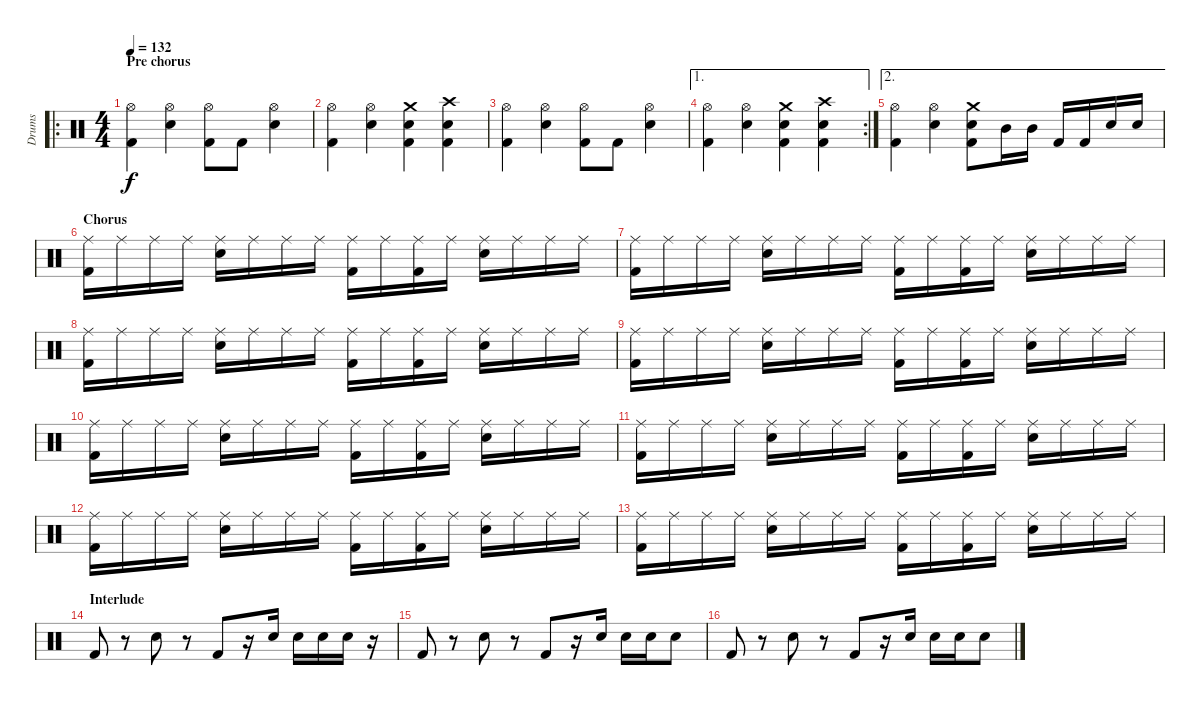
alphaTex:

\track ("Drums" "Drums") {instrument percussion}
\staff {score}
\articulation defaults
\ro
\ts (4 4)
\section ("" "Pre chorus")
\tempo 132
\clef neutral
\ks c
("Hi-Hat (open)" "Kick (hit) 2").4{dy f} ("Hi-Hat (open)" "Electric Snare (hit)").4 ("Hi-Hat (open)" "Kick (hit) 2").8 "Kick (hit) 2".8 ("Hi-Hat (open)" "Electric Snare (hit)").4 |
("Hi-Hat (open)" "Kick (hit) 2").4 ("Hi-Hat (open)" "Electric Snare (hit)").4 ("Crash medium (hit)" "Electric Snare (hit)" "Kick (hit) 2").4 ("Crash high (hit)" "Electric Snare (hit)" "Kick (hit) 2").4 |
("Hi-Hat (open)" "Kick (hit) 2").4 ("Hi-Hat (open)" "Electric Snare (hit)").4 ("Hi-Hat (open)" "Kick (hit) 2").8 "Kick (hit) 2".8 ("Hi-Hat (open)" "Electric Snare (hit)").4 |
\ae 1
\rc 2
("Hi-Hat (open)" "Kick (hit) 2").4 ("Hi-Hat (open)" "Electric Snare (hit)").4 ("Crash medium (hit)" "Electric Snare (hit)" "Kick (hit) 2").4 ("Crash high (hit)" "Electric Snare (hit)" "Kick (hit) 2").4 |
\ae 2
("Hi-Hat (open)" "Kick (hit) 2").4 ("Hi-Hat (open)" "Electric Snare (hit)").4 ("Crash medium (hit)" "Electric Snare (hit)" "Kick (hit) 2").8 "Mid Tom (hit)".16 "Mid Tom (hit)".16 "Kick (hit) 2".16 "Kick (hit) 2".16 "Electric Snare (hit)".16 "Electric Snare (hit)".16 |
\section ("" "Chorus")
("Ride (middle)" "Kick (hit) 2").16 "Ride (middle)".16 "Ride (middle)".16 "Ride (middle)".16 ("Ride (middle)" "Electric Snare (hit)").16 "Ride (middle)".16 "Ride (middle)".16 "Ride (middle)".16 ("Ride (middle)" "Kick (hit) 2").16 "Ride (middle)".16 ("Ride (middle)" "Kick (hit) 2").16 "Ride (middle)".16 ("Ride (middle)" "Electric Snare (hit)").16 "Ride (middle)".16 "Ride (middle)".16 "Ride (middle)".16 |
("Ride (middle)" "Kick (hit) 2").16 "Ride (middle)".16 "Ride (middle)".16 "Ride (middle)".16 ("Ride (middle)" "Electric Snare (hit)").16 "Ride (middle)".16 "Ride (middle)".16 "Ride (middle)".16 ("Ride (middle)" "Kick (hit) 2").16 "Ride (middle)".16 ("Ride (middle)" "Kick (hit) 2").16 "Ride (middle)".16 ("Ride (middle)" "Electric Snare (hit)").16 "Ride (middle)".16 "Ride (middle)".16 "Ride (middle)".16 |
("Ride (middle)" "Kick (hit) 2").16 "Ride (middle)".16 "Ride (middle)".16 "Ride (middle)".16 ("Ride (middle)" "Electric Snare (hit)").16 "Ride (middle)".16 "Ride (middle)".16 "Ride (middle)".16 ("Ride (middle)" "Kick (hit) 2").16 "Ride (middle)".16 ("Ride (middle)" "Kick (hit) 2").16 "Ride (middle)".16 ("Ride (middle)" "Electric Snare (hit)").16 "Ride (middle)".16 "Ride (middle)".16 "Ride (middle)".16 |
("Ride (middle)" "Kick (hit) 2").16 "Ride (middle)".16 "Ride (middle)".16 "Ride (middle)".16 ("Ride (middle)" "Electric Snare (hit)").16 "Ride (middle)".16 "Ride (middle)".16 "Ride (middle)".16 ("Ride (middle)" "Kick (hit) 2").16 "Ride (middle)".16 ("Ride (middle)" "Kick (hit) 2").16 "Ride (middle)".16 ("Ride (middle)" "Electric Snare (hit)").16 "Ride (middle)".16 "Ride (middle)".16 "Ride (middle)".16 |
("Ride (middle)" "Kick (hit) 2").16 "Ride (middle)".16 "Ride (middle)".16 "Ride (middle)".16 ("Ride (middle)" "Electric Snare (hit)").16 "Ride (middle)".16 "Ride (middle)".16 "Ride (middle)".16 ("Ride (middle)" "Kick (hit) 2").16 "Ride (middle)".16 ("Ride (middle)" "Kick (hit) 2").16 "Ride (middle)".16 ("Ride (middle)" "Electric Snare (hit)").16 "Ride (middle)".16 "Ride (middle)".16 "Ride (middle)".16 |
("Ride (middle)" "Kick (hit) 2").16 "Ride (middle)".16 "Ride (middle)".16 "Ride (middle)".16 ("Ride (middle)" "Electric Snare (hit)").16 "Ride (middle)".16 "Ride (middle)".16 "Ride (middle)".16 ("Ride (middle)" "Kick (hit) 2").16 "Ride (middle)".16 ("Ride (middle)" "Kick (hit) 2").16 "Ride (middle)".16 ("Ride (middle)" "Electric Snare (hit)").16 "Ride (middle)".16 "Ride (middle)".16 "Ride (middle)".16 |
("Ride (middle)" "Kick (hit) 2").16 "Ride (middle)".16 "Ride (middle)".16 "Ride (middle)".16 ("Ride (middle)" "Electric Snare (hit)").16 "Ride (middle)".16 "Ride (middle)".16 "Ride (middle)".16 ("Ride (middle)" "Kick (hit) 2").16 "Ride (middle)".16 ("Ride (middle)" "Kick (hit) 2").16 "Ride (middle)".16 ("Ride (middle)" "Electric Snare (hit)").16 "Ride (middle)".16 "Ride (middle)".16 "Ride (middle)".16 |
("Ride (middle)" "Kick (hit) 2").16 "Ride (middle)".16 "Ride (middle)".16 "Ride (middle)".16 ("Ride (middle)" "Electric Snare (hit)").16 "Ride (middle)".16 "Ride (middle)".16 "Ride (middle)".16 ("Ride (middle)" "Kick (hit) 2").16 "Ride (middle)".16 ("Ride (middle)" "Kick (hit) 2").16 "Ride (middle)".16 ("Ride (middle)" "Electric Snare (hit)").16 "Ride (middle)".16 "Ride (middle)".16 "Ride (middle)".16 |
\section ("" "Interlude")
"Kick (hit) 2".8 r.8 "Electric Snare (hit)".8 r.8 "Kick (hit) 2".8 r.16 "Electric Snare (hit)".16 "Electric Snare (hit)".16 "Electric Snare (hit)".16 "Electric Snare (hit)".16 r.16 |
"Kick (hit) 2".8 r.8 "Electric Snare (hit)".8 r.8 "Kick (hit) 2".8 r.16 "Electric Snare (hit)".16 "Electric Snare (hit)".16 "Electric Snare (hit)".16 "Electric Snare (hit)".8 |
"Kick (hit) 2".8 r.8 "Electric Snare (hit)".8 r.8 "Kick (hit) 2".8 r.16 "Electric Snare (hit)".16 "Electric Snare (hit)".16 "Electric Snare (hit)".16 "Electric Snare (hit)".8
